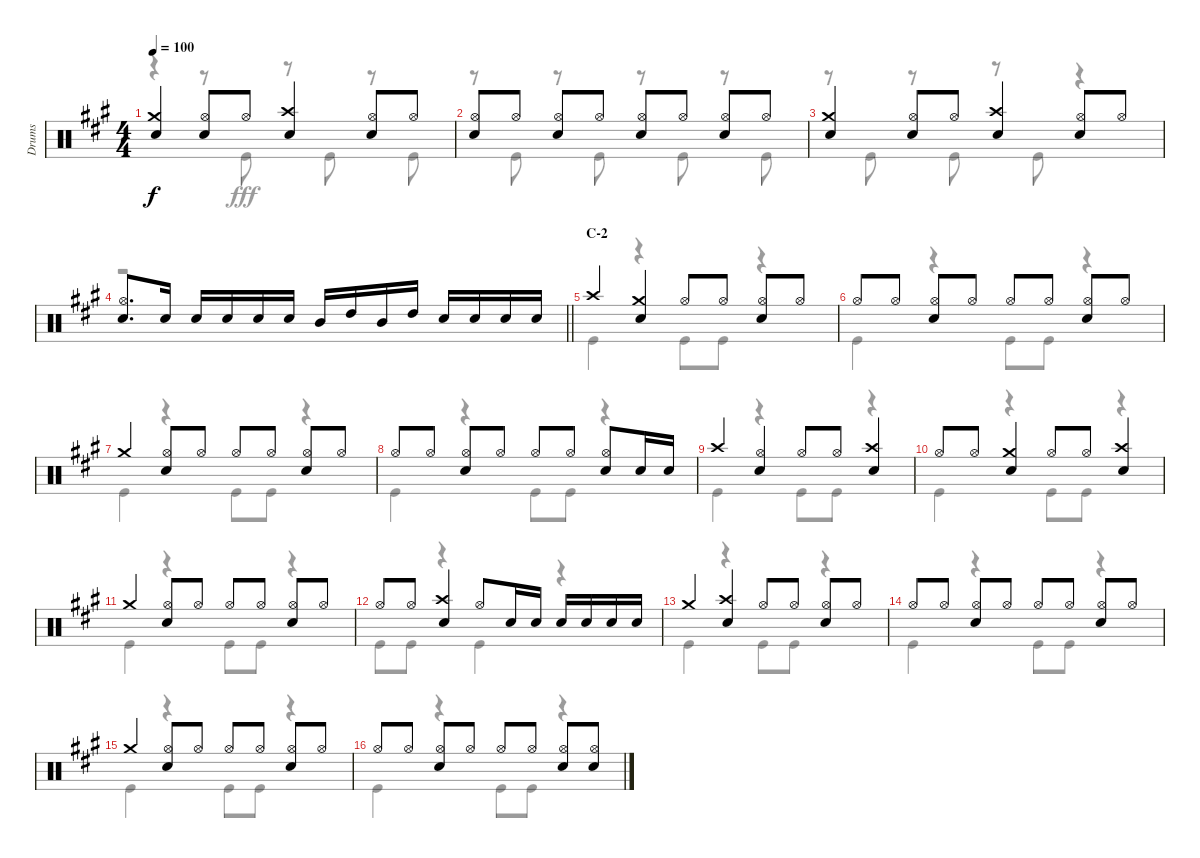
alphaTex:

\track ("Drums" "Drums") {instrument percussion}
\staff {score}
\articulation defaults
\voice
\ts (4 4)
\tempo 100
\clef neutral
\ks a
("Crash medium (hit)" "Snare (hit) 2").4{dy f} ("Hi-Hat (open)" "Snare (hit) 2").8 "Hi-Hat (open)".8 ("Crash high (hit)" "Snare (hit) 2").4 ("Hi-Hat (open)" "Snare (hit) 2").8 "Hi-Hat (open)".8 |
("Hi-Hat (open)" "Snare (hit) 2").8 "Hi-Hat (open)".8 ("Hi-Hat (open)" "Snare (hit) 2").8 "Hi-Hat (open)".8 ("Hi-Hat (open)" "Snare (hit) 2").8 "Hi-Hat (open)".8 ("Hi-Hat (open)" "Snare (hit) 2").8 "Hi-Hat (open)".8 |
("Crash medium (hit)" "Snare (hit) 2").4 ("Hi-Hat (open)" "Snare (hit) 2").8 "Hi-Hat (open)".8 ("Crash high (hit)" "Snare (hit) 2").4 ("Hi-Hat (open)" "Snare (hit) 2").8 "Hi-Hat (open)".8 |
\barLineRight lightlight
("Hi-Hat (open)" "Snare (hit) 2").8{d} "Snare (hit) 2".16 "Snare (hit) 2".16 "Snare (hit) 2".16 "Snare (hit) 2".16 "Snare (hit) 2".16 "Mid Tom (hit)".16 "High Tom (hit)".16 "Mid Tom (hit)".16 "High Tom (hit)".16 "Snare (hit) 2".16 "Snare (hit) 2".16 "Snare (hit) 2".16 "Snare (hit) 2".16 |
\section ("" "C-2")
"Crash high (hit)".4 ("Crash medium (hit)" "Snare (hit) 2").4 "Hi-Hat (open)".8 "Hi-Hat (open)".8 ("Hi-Hat (open)" "Snare (hit) 2").8 "Hi-Hat (open)".8 |
"Hi-Hat (open)".8 "Hi-Hat (open)".8 ("Hi-Hat (open)" "Snare (hit) 2").8 "Hi-Hat (open)".8 "Hi-Hat (open)".8 "Hi-Hat (open)".8 ("Hi-Hat (open)" "Snare (hit) 2").8 "Hi-Hat (open)".8 |
"Crash medium (hit)".4 ("Hi-Hat (open)" "Snare (hit) 2").8 "Hi-Hat (open)".8 "Hi-Hat (open)".8 "Hi-Hat (open)".8 ("Hi-Hat (open)" "Snare (hit) 2").8 "Hi-Hat (open)".8 |
"Hi-Hat (open)".8 "Hi-Hat (open)".8 ("Hi-Hat (open)" "Snare (hit) 2").8 "Hi-Hat (open)".8 "Hi-Hat (open)".8 "Hi-Hat (open)".8 ("Hi-Hat (open)" "Snare (hit) 2").8 "Snare (hit) 2".16 "Snare (hit) 2".16 |
"Crash high (hit)".4 ("Hi-Hat (open)" "Snare (hit) 2").4 "Hi-Hat (open)".8 "Hi-Hat (open)".8 ("Crash high (hit)" "Snare (hit) 2").4 |
"Hi-Hat (open)".8 "Hi-Hat (open)".8 ("Crash medium (hit)" "Snare (hit) 2").4 "Hi-Hat (open)".8 "Hi-Hat (open)".8 ("Crash high (hit)" "Snare (hit) 2").4 |
"Crash medium (hit)".4 ("Hi-Hat (open)" "Snare (hit) 2").8 "Hi-Hat (open)".8 "Hi-Hat (open)".8 "Hi-Hat (open)".8 ("Hi-Hat (open)" "Snare (hit) 2").8 "Hi-Hat (open)".8 |
"Hi-Hat (open)".8 "Hi-Hat (open)".8 ("Crash high (hit)" "Snare (hit) 2").4 "Hi-Hat (open)".8 "Snare (hit) 2".16 "Snare (hit) 2".16 "Snare (hit) 2".16 "Snare (hit) 2".16 "Snare (hit) 2".16 "Snare (hit) 2".16 |
"Crash medium (hit)".4 ("Crash high (hit)" "Snare (hit) 2").4 "Hi-Hat (open)".8 "Hi-Hat (open)".8 ("Hi-Hat (open)" "Snare (hit) 2").8 "Hi-Hat (open)".8 |
"Hi-Hat (open)".8 "Hi-Hat (open)".8 ("Hi-Hat (open)" "Snare (hit) 2").8 "Hi-Hat (open)".8 "Hi-Hat (open)".8 "Hi-Hat (open)".8 ("Hi-Hat (open)" "Snare (hit) 2").8 "Hi-Hat (open)".8 |
"Crash medium (hit)".4 ("Hi-Hat (open)" "Snare (hit) 2").8 "Hi-Hat (open)".8 "Hi-Hat (open)".8 "Hi-Hat (open)".8 ("Hi-Hat (open)" "Snare (hit) 2").8 "Hi-Hat (open)".8 |
"Hi-Hat (open)".8 "Hi-Hat (open)".8 ("Hi-Hat (open)" "Snare (hit) 2").8 "Hi-Hat (open)".8 "Hi-Hat (open)".8 "Hi-Hat (open)".8 ("Hi-Hat (open)" "Snare (hit) 2").8 ("Hi-Hat (open)" "Snare (hit) 2").8
\voice
\clef neutral
\ottava regular
\simile none
\ks a
r.4{dy fff} r.8 "Kick (hit)".8 r.8 "Kick (hit)".8 r.8 "Kick (hit)".8 |
r.8 "Kick (hit)".8 r.8 "Kick (hit)".8 r.8 "Kick (hit)".8 r.8 "Kick (hit)".8 |
r.8 "Kick (hit)".8 r.8 "Kick (hit)".8 r.8 "Kick (hit)".8 r.4 |
\barLineRight lightlight
r.1 |
"Kick (hit)".4 r.4 "Kick (hit)".8 "Kick (hit)".8 r.4 |
"Kick (hit)".4 r.4 "Kick (hit)".8 "Kick (hit)".8 r.4 |
"Kick (hit)".4 r.4 "Kick (hit)".8 "Kick (hit)".8 r.4 |
"Kick (hit)".4 r.4 "Kick (hit)".8 "Kick (hit)".8 r.4 |
"Kick (hit)".4 r.4 "Kick (hit)".8 "Kick (hit)".8 r.4 |
"Kick (hit)".4 r.4 "Kick (hit)".8 "Kick (hit)".8 r.4 |
"Kick (hit)".4 r.4 "Kick (hit)".8 "Kick (hit)".8 r.4 |
"Kick (hit)".8 "Kick (hit)".8 r.4 "Kick (hit)".4 r.4 |
"Kick (hit)".4 r.4 "Kick (hit)".8 "Kick (hit)".8 r.4 |
"Kick (hit)".4 r.4 "Kick (hit)".8 "Kick (hit)".8 r.4 |
"Kick (hit)".4 r.4 "Kick (hit)".8 "Kick (hit)".8 r.4 |
"Kick (hit)".4 r.4 "Kick (hit)".8 "Kick (hit)".8 r.4
